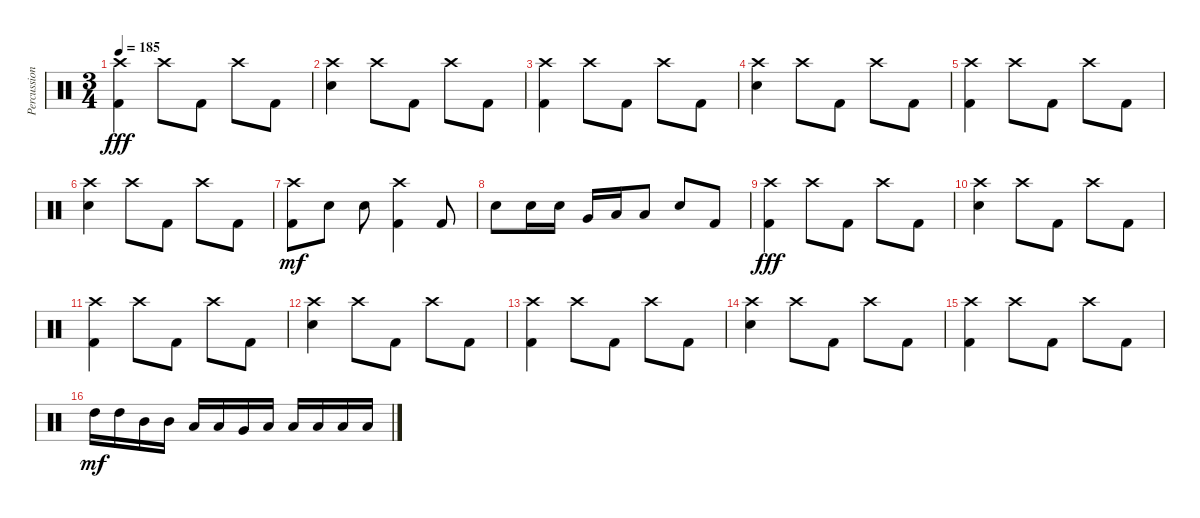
\track ("Percussion" "Percussion") {instrument percussion}
\staff {score}
\articulation defaults
\ts (3 4)
\tempo 185
\clef neutral
\ks c
("Crash high (hit)" "Kick (hit) 2").4{dy fff} "Crash high (hit)".8 "Kick (hit) 2".8 "Crash high (hit)".8 "Kick (hit) 2".8 |
("Crash high (hit)" "Electric Snare (hit)").4 "Crash high (hit)".8 "Kick (hit) 2".8 "Crash high (hit)".8 "Kick (hit) 2".8 |
("Crash high (hit)" "Kick (hit) 2").4 "Crash high (hit)".8 "Kick (hit) 2".8 "Crash high (hit)".8 "Kick (hit) 2".8 |
("Crash high (hit)" "Electric Snare (hit)").4 "Crash high (hit)".8 "Kick (hit) 2".8 "Crash high (hit)".8 "Kick (hit) 2".8 |
("Crash high (hit)" "Kick (hit) 2").4 "Crash high (hit)".8 "Kick (hit) 2".8 "Crash high (hit)".8 "Kick (hit) 2".8 |
("Crash high (hit)" "Electric Snare (hit)").4 "Crash high (hit)".8 "Kick (hit) 2".8 "Crash high (hit)".8 "Kick (hit) 2".8 |
("Kick (hit) 2" "Crash high (hit)").8{dy mf} "Electric Snare (hit)".8 "Electric Snare (hit)".8 ("Crash high (hit)" "Kick (hit) 2").4 "Kick (hit) 2".8 |
"Electric Snare (hit)".8 "Electric Snare (hit)".16 "Electric Snare (hit)".16 "Very Low Tom (hit)".16 "Low Floor Tom (hit)".16 "Low Floor Tom (hit)".8 "Electric Snare (hit)".8 "Kick (hit) 2".8 |
("Crash high (hit)" "Kick (hit) 2").4{dy fff} "Crash high (hit)".8 "Kick (hit) 2".8 "Crash high (hit)".8 "Kick (hit) 2".8 |
("Crash high (hit)" "Electric Snare (hit)").4 "Crash high (hit)".8 "Kick (hit) 2".8 "Crash high (hit)".8 "Kick (hit) 2".8 |
("Crash high (hit)" "Kick (hit) 2").4 "Crash high (hit)".8 "Kick (hit) 2".8 "Crash high (hit)".8 "Kick (hit) 2".8 |
("Crash high (hit)" "Electric Snare (hit)").4 "Crash high (hit)".8 "Kick (hit) 2".8 "Crash high (hit)".8 "Kick (hit) 2".8 |
("Crash high (hit)" "Kick (hit) 2").4 "Crash high (hit)".8 "Kick (hit) 2".8 "Crash high (hit)".8 "Kick (hit) 2".8 |
("Crash high (hit)" "Electric Snare (hit)").4 "Crash high (hit)".8 "Kick (hit) 2".8 "Crash high (hit)".8 "Kick (hit) 2".8 |
("Crash high (hit)" "Kick (hit) 2").4 "Crash high (hit)".8 "Kick (hit) 2".8 "Crash high (hit)".8 "Kick (hit) 2".8 |
"High Tom (hit)".16{dy mf} "High Tom (hit)".16 "Mid Tom (hit)".16 "Mid Tom (hit)".16 "Low Tom (hit)".16 "Low Tom (hit)".16 "Very Low Tom (hit)".16 "Low Floor Tom (hit)".16 "Low Floor Tom (hit)".16 "Low Floor Tom (hit)".16 "Low Floor Tom (hit)".16 "Low Floor Tom (hit)".16
